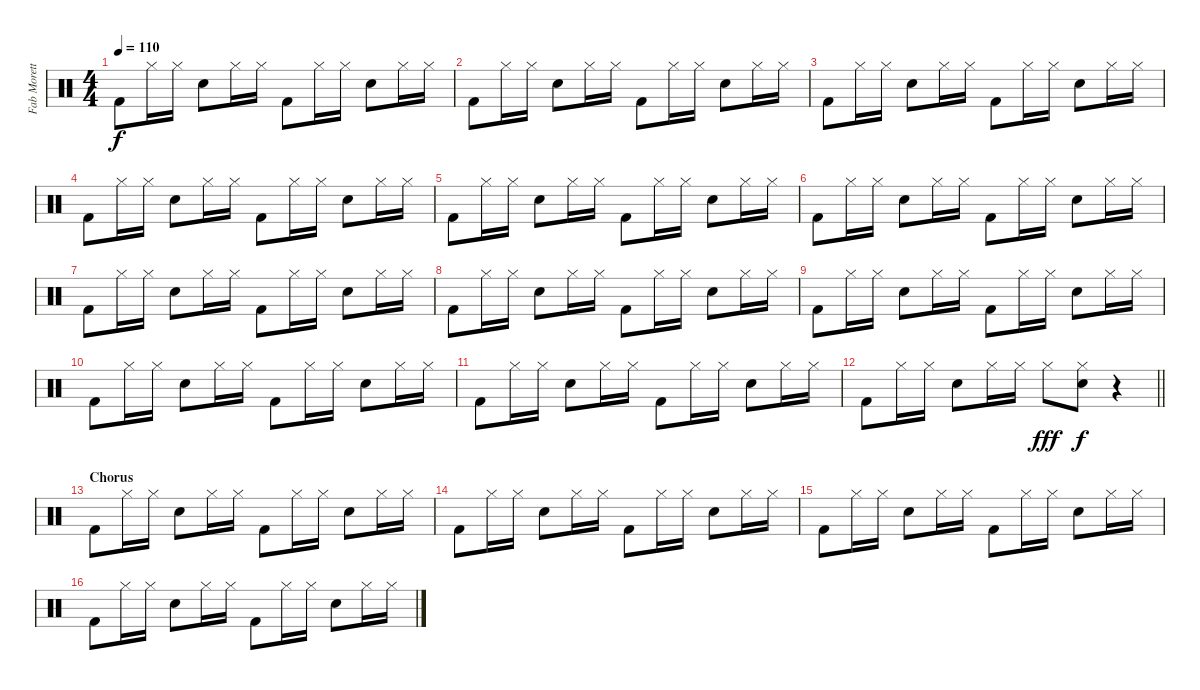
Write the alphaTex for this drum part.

\track ("Fab Moretti" "Fab Morett") {instrument percussion}
\staff {score}
\articulation defaults
\ts (4 4)
\tempo 110
\clef neutral
\ks c "Kick (hit) 2".8{dy f} "Hi-Hat (closed)".16 "Hi-Hat (closed)".16 "Electric Snare (hit)".8 "Hi-Hat (closed)".16 "Hi-Hat (closed)".16 "Kick (hit) 2".8 "Hi-Hat (closed)".16 "Hi-Hat (closed)".16 "Electric Snare (hit)".8 "Hi-Hat (closed)".16 "Hi-Hat (closed)".16
|
"Kick (hit) 2".8 "Hi-Hat (closed)".16 "Hi-Hat (closed)".16 "Electric Snare (hit)".8 "Hi-Hat (closed)".16 "Hi-Hat (closed)".16 "Kick (hit) 2".8 "Hi-Hat (closed)".16 "Hi-Hat (closed)".16 "Electric Snare (hit)".8 "Hi-Hat (closed)".16 "Hi-Hat (closed)".16 |
"Kick (hit) 2".8 "Hi-Hat (closed)".16 "Hi-Hat (closed)".16 "Electric Snare (hit)".8 "Hi-Hat (closed)".16 "Hi-Hat (closed)".16 "Kick (hit) 2".8 "Hi-Hat (closed)".16 "Hi-Hat (closed)".16 "Electric Snare (hit)".8 "Hi-Hat (closed)".16 "Hi-Hat (closed)".16 |
"Kick (hit) 2".8 "Hi-Hat (closed)".16 "Hi-Hat (closed)".16 "Electric Snare (hit)".8 "Hi-Hat (closed)".16 "Hi-Hat (closed)".16 "Kick (hit) 2".8 "Hi-Hat (closed)".16 "Hi-Hat (closed)".16 "Electric Snare (hit)".8 "Hi-Hat (closed)".16 "Hi-Hat (closed)".16 |
"Kick (hit) 2".8 "Hi-Hat (closed)".16 "Hi-Hat (closed)".16 "Electric Snare (hit)".8 "Hi-Hat (closed)".16 "Hi-Hat (closed)".16 "Kick (hit) 2".8 "Hi-Hat (closed)".16 "Hi-Hat (closed)".16 "Electric Snare (hit)".8 "Hi-Hat (closed)".16 "Hi-Hat (closed)".16 |
"Kick (hit) 2".8 "Hi-Hat (closed)".16 "Hi-Hat (closed)".16 "Electric Snare (hit)".8 "Hi-Hat (closed)".16 "Hi-Hat (closed)".16 "Kick (hit) 2".8 "Hi-Hat (closed)".16 "Hi-Hat (closed)".16 "Electric Snare (hit)".8 "Hi-Hat (closed)".16 "Hi-Hat (closed)".16 |
"Kick (hit) 2".8 "Hi-Hat (closed)".16 "Hi-Hat (closed)".16 "Electric Snare (hit)".8 "Hi-Hat (closed)".16 "Hi-Hat (closed)".16 "Kick (hit) 2".8 "Hi-Hat (closed)".16 "Hi-Hat (closed)".16 "Electric Snare (hit)".8 "Hi-Hat (closed)".16 "Hi-Hat (closed)".16 |
"Kick (hit) 2".8 "Hi-Hat (closed)".16 "Hi-Hat (closed)".16 "Electric Snare (hit)".8 "Hi-Hat (closed)".16 "Hi-Hat (closed)".16 "Kick (hit) 2".8 "Hi-Hat (closed)".16 "Hi-Hat (closed)".16 "Electric Snare (hit)".8 "Hi-Hat (closed)".16 "Hi-Hat (closed)".16 |
"Kick (hit) 2".8 "Hi-Hat (closed)".16 "Hi-Hat (closed)".16 "Electric Snare (hit)".8 "Hi-Hat (closed)".16 "Hi-Hat (closed)".16 "Kick (hit) 2".8 "Hi-Hat (closed)".16 "Hi-Hat (closed)".16 "Electric Snare (hit)".8 "Hi-Hat (closed)".16 "Hi-Hat (closed)".16 |
"Kick (hit) 2".8 "Hi-Hat (closed)".16 "Hi-Hat (closed)".16 "Electric Snare (hit)".8 "Hi-Hat (closed)".16 "Hi-Hat (closed)".16 "Kick (hit) 2".8 "Hi-Hat (closed)".16 "Hi-Hat (closed)".16 "Electric Snare (hit)".8 "Hi-Hat (closed)".16 "Hi-Hat (closed)".16 |
"Kick (hit) 2".8 "Hi-Hat (closed)".16 "Hi-Hat (closed)".16 "Electric Snare (hit)".8 "Hi-Hat (closed)".16 "Hi-Hat (closed)".16 "Kick (hit) 2".8 "Hi-Hat (closed)".16 "Hi-Hat (closed)".16 "Electric Snare (hit)".8 "Hi-Hat (closed)".16 "Hi-Hat (closed)".16 |
\barLineRight lightlight "Kick (hit) 2".8 "Hi-Hat (closed)".16 "Hi-Hat (closed)".16 "Electric Snare (hit)".8 "Hi-Hat (closed)".16 "Hi-Hat (closed)".16 "Hi-Hat (closed)".8{dy fff}
("Electric Snare (hit)" "Hi-Hat (closed)").8{dy f} r.4 |
\section ("" "Chorus")
"Kick (hit) 2".8 "Hi-Hat (closed)".16 "Hi-Hat (closed)".16 "Electric Snare (hit)".8 "Hi-Hat (closed)".16 "Hi-Hat (closed)".16 "Kick (hit) 2".8 "Hi-Hat (closed)".16 "Hi-Hat (closed)".16 "Electric Snare (hit)".8 "Hi-Hat (closed)".16 "Hi-Hat (closed)".16 |
"Kick (hit) 2".8 "Hi-Hat (closed)".16 "Hi-Hat (closed)".16 "Electric Snare (hit)".8 "Hi-Hat (closed)".16 "Hi-Hat (closed)".16 "Kick (hit) 2".8 "Hi-Hat (closed)".16 "Hi-Hat (closed)".16 "Electric Snare (hit)".8 "Hi-Hat (closed)".16 "Hi-Hat (closed)".16 |
"Kick (hit) 2".8 "Hi-Hat (closed)".16 "Hi-Hat (closed)".16 "Electric Snare (hit)".8 "Hi-Hat (closed)".16 "Hi-Hat (closed)".16 "Kick (hit) 2".8 "Hi-Hat (closed)".16 "Hi-Hat (closed)".16 "Electric Snare (hit)".8 "Hi-Hat (closed)".16 "Hi-Hat (closed)".16 |
"Kick (hit) 2".8 "Hi-Hat (closed)".16 "Hi-Hat (closed)".16 "Electric Snare (hit)".8 "Hi-Hat (closed)".16 "Hi-Hat (closed)".16 "Kick (hit) 2".8 "Hi-Hat (closed)".16 "Hi-Hat (closed)".16 "Electric Snare (hit)".8 "Hi-Hat (closed)".16 "Hi-Hat (closed)".16
